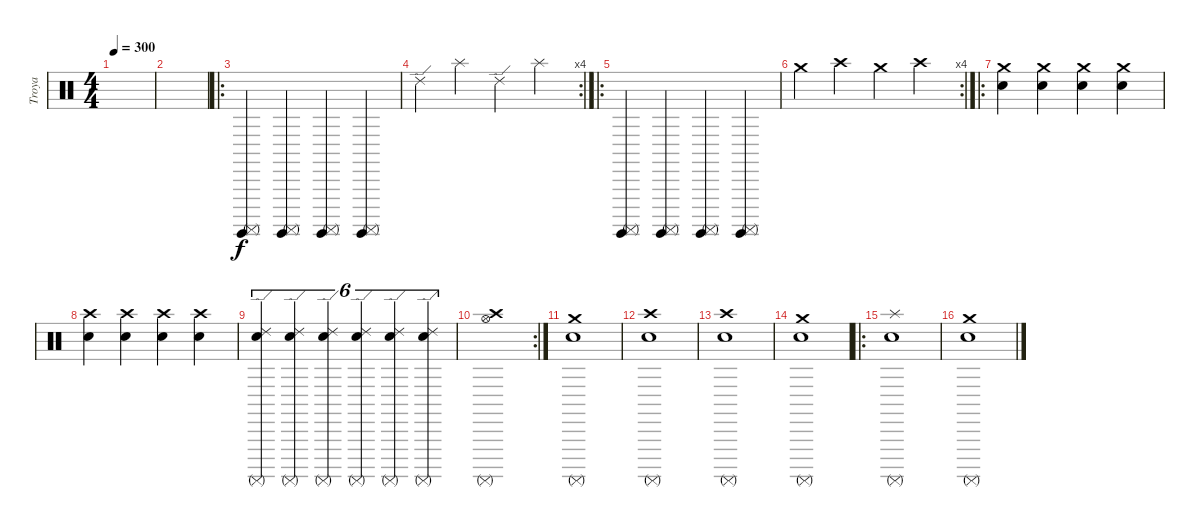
\track ("Troya" "Troya") {instrument percussion}
\staff {score}
\articulation defaults
\ts (4 4)
\tempo 300
\clef neutral
\ks c
|
|
\ro
("Surdo (hit)" "Surdo (mute)").4{volume 16} ("Surdo (hit)" "Surdo (mute)").4 ("Surdo (hit)" "Surdo (mute)").4 ("Surdo (hit)" "Surdo (mute)").4 |
\rc 4 "Ride (edge) 2".4 "Splash (hit)".4 "Ride (edge) 2".4 "Splash (hit)".4
|
\ro
("Surdo (hit)" "Surdo (mute)").4 ("Surdo (hit)" "Surdo (mute)").4 ("Surdo (hit)" "Surdo (mute)").4 ("Surdo (hit)" "Surdo (mute)").4 |
\rc 4 "Crash medium (hit)".4 "Crash high (hit)".4 "Crash medium (hit)".4 "Crash high (hit)".4
|
\ro
("Crash medium (hit)" "Electric Snare (hit)").4 ("Crash medium (hit)" "Electric Snare (hit)").4 ("Crash medium (hit)" "Electric Snare (hit)").4 ("Crash medium (hit)" "Electric Snare (hit)").4 |
("Crash high (hit)" "Electric Snare (hit)").4 ("Crash high (hit)" "Electric Snare (hit)").4 ("Crash high (hit)" "Electric Snare (hit)").4 ("Crash high (hit)" "Electric Snare (hit)").4 |
("Ride (edge) 2" "Electric Snare (hit)" "Surdo (mute)").4{tu (6 4)} ("Ride (edge) 2" "Electric Snare (hit)" "Surdo (mute)").4{tu (6 4)} ("Ride (edge) 2" "Electric Snare (hit)" "Surdo (mute)").4{tu (6 4)} ("Ride (edge) 2" "Electric Snare (hit)" "Surdo (mute)").4{tu (6 4)} ("Ride (edge) 2" "Electric Snare (hit)" "Surdo (mute)").4{tu (6 4)} ("Ride (edge) 2" "Electric Snare (hit)" "Surdo (mute)").4{tu (6 4)} |
\rc 2
("Surdo (mute)" "Crash high (hit)" "Hi-Hat (open)").1 |
("Crash medium (hit)" "Surdo (mute)" "Electric Snare (hit)").1 |
("Crash high (hit)" "Surdo (mute)" "Electric Snare (hit)").1 |
("Crash high (hit)" "Electric Snare (hit)" "Surdo (mute)").1 |
("Crash medium (hit)" "Electric Snare (hit)" "Surdo (mute)").1 |
\ro
("Splash (hit)" "Electric Snare (hit)" "Surdo (mute)").1 |
("Crash medium (hit)" "Electric Snare (hit)" "Surdo (mute)").1
